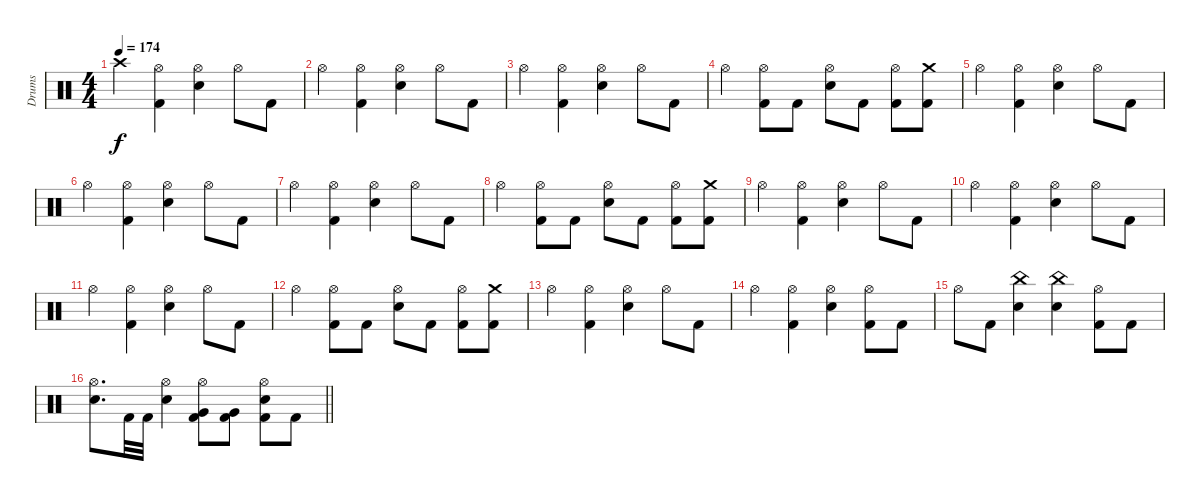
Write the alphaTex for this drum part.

\track ("Drums" "Drums") {instrument percussion}
\staff {score}
\articulation defaults
\ts (4 4)
\tempo 174
\clef neutral
\ks c "Crash high (hit)".4{dy f}
("Hi-Hat (open)" "Kick (hit) 2").4 ("Hi-Hat (open)" "Snare (hit) 2").4 "Hi-Hat (open)".8 "Kick (hit) 2".8 |
"Hi-Hat (open)".4 ("Hi-Hat (open)" "Kick (hit) 2").4 ("Hi-Hat (open)" "Snare (hit) 2").4 "Hi-Hat (open)".8 "Kick (hit) 2".8 |
"Hi-Hat (open)".4 ("Hi-Hat (open)" "Kick (hit) 2").4 ("Hi-Hat (open)" "Snare (hit) 2").4 "Hi-Hat (open)".8 "Kick (hit) 2".8 |
"Hi-Hat (open)".4 ("Hi-Hat (open)" "Kick (hit) 2").8 "Kick (hit) 2".8 ("Hi-Hat (open)" "Snare (hit) 2").8 "Kick (hit) 2".8 ("Hi-Hat (open)" "Kick (hit) 2").8 ("Crash medium (hit)" "Kick (hit) 2").8 |
"Hi-Hat (open)".4 ("Hi-Hat (open)" "Kick (hit) 2").4 ("Hi-Hat (open)" "Snare (hit) 2").4 "Hi-Hat (open)".8 "Kick (hit) 2".8 |
"Hi-Hat (open)".4 ("Hi-Hat (open)" "Kick (hit) 2").4 ("Hi-Hat (open)" "Snare (hit) 2").4 "Hi-Hat (open)".8 "Kick (hit) 2".8 |
"Hi-Hat (open)".4 ("Hi-Hat (open)" "Kick (hit) 2").4 ("Hi-Hat (open)" "Snare (hit) 2").4 "Hi-Hat (open)".8 "Kick (hit) 2".8 |
"Hi-Hat (open)".4 ("Hi-Hat (open)" "Kick (hit) 2").8 "Kick (hit) 2".8 ("Hi-Hat (open)" "Snare (hit) 2").8 "Kick (hit) 2".8 ("Hi-Hat (open)" "Kick (hit) 2").8 ("Crash medium (hit)" "Kick (hit) 2").8 |
"Hi-Hat (open)".4 ("Hi-Hat (open)" "Kick (hit) 2").4 ("Hi-Hat (open)" "Snare (hit) 2").4 "Hi-Hat (open)".8 "Kick (hit) 2".8 |
"Hi-Hat (open)".4 ("Hi-Hat (open)" "Kick (hit) 2").4 ("Hi-Hat (open)" "Snare (hit) 2").4 "Hi-Hat (open)".8 "Kick (hit) 2".8 |
"Hi-Hat (open)".4 ("Hi-Hat (open)" "Kick (hit) 2").4 ("Hi-Hat (open)" "Snare (hit) 2").4 "Hi-Hat (open)".8 "Kick (hit) 2".8 |
"Hi-Hat (open)".4 ("Hi-Hat (open)" "Kick (hit) 2").8 "Kick (hit) 2".8 ("Hi-Hat (open)" "Snare (hit) 2").8 "Kick (hit) 2".8 ("Hi-Hat (open)" "Kick (hit) 2").8 ("Crash medium (hit)" "Kick (hit) 2").8 |
"Hi-Hat (open)".4 ("Hi-Hat (open)" "Kick (hit) 2").4 ("Hi-Hat (open)" "Snare (hit) 2").4 "Hi-Hat (open)".8 "Kick (hit) 2".8 |
"Hi-Hat (open)".4 ("Hi-Hat (open)" "Kick (hit) 2").4 ("Hi-Hat (open)" "Snare (hit) 2").4 ("Hi-Hat (open)" "Kick (hit) 2").8 "Kick (hit) 2".8 |
"Hi-Hat (open)".8 "Kick (hit) 2".8 ("China (hit)" "Snare (hit) 2").4 ("China (hit)" "Snare (hit) 2").4 ("Hi-Hat (open)" "Kick (hit) 2").8 "Kick (hit) 2".8 |
\barLineRight lightlight
("Hi-Hat (open)" "Snare (hit) 2").8{d} "Kick (hit) 2".32 "Kick (hit) 2".32 ("Hi-Hat (open)" "Snare (hit) 2").4 ("Hi-Hat (open)" "Very Low Tom (hit)" "Kick (hit) 2").8 ("Very Low Tom (hit)" "Kick (hit) 2").8 ("Hi-Hat (open)" "Snare (hit)" "Kick (hit) 2").8 "Kick (hit) 2".8
